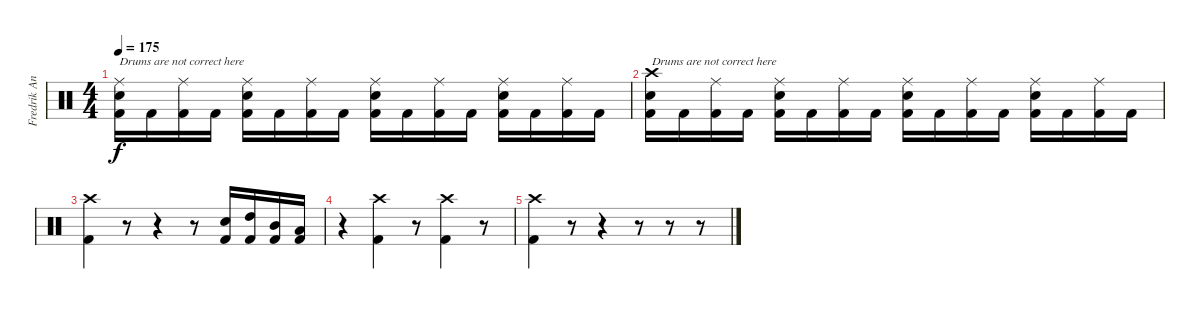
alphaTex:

\track ("Fredrik Andersson" "Fredrik An") {instrument percussion}
\staff {score}
\articulation defaults
\ts (4 4)
\tempo 175
\clef neutral
\ks c
("Ride (middle)" "Electric Snare (hit)" "Kick (hit) 2").16{txt "Drums are not correct here" dy f} "Kick (hit) 2".16 ("Ride (middle)" "Kick (hit) 2").16 "Kick (hit) 2".16 ("Ride (middle)" "Electric Snare (hit)" "Kick (hit) 2").16 "Kick (hit) 2".16 ("Ride (middle)" "Kick (hit) 2").16 "Kick (hit) 2".16 ("Ride (middle)" "Electric Snare (hit)" "Kick (hit) 2").16 "Kick (hit) 2".16 ("Ride (middle)" "Kick (hit) 2").16 "Kick (hit) 2".16 ("Ride (middle)" "Electric Snare (hit)" "Kick (hit) 2").16 "Kick (hit) 2".16 ("Ride (middle)" "Kick (hit) 2").16 "Kick (hit) 2".16 |
("Crash high (hit)" "Electric Snare (hit)" "Kick (hit) 2").16{txt "Drums are not correct here"} "Kick (hit) 2".16 ("Ride (middle)" "Kick (hit) 2").16 "Kick (hit) 2".16 ("Ride (middle)" "Electric Snare (hit)" "Kick (hit) 2").16 "Kick (hit) 2".16 ("Ride (middle)" "Kick (hit) 2").16 "Kick (hit) 2".16 ("Ride (middle)" "Electric Snare (hit)" "Kick (hit) 2").16 "Kick (hit) 2".16 ("Ride (middle)" "Kick (hit) 2").16 "Kick (hit) 2".16 ("Ride (middle)" "Electric Snare (hit)" "Kick (hit) 2").16 "Kick (hit) 2".16 ("Ride (middle)" "Kick (hit) 2").16 "Kick (hit) 2".16 |
("Crash high (hit)" "Kick (hit) 2").4 r.8 r.4 r.8 ("Electric Snare (hit)" "Kick (hit) 2").16 ("High Tom (hit)" "Kick (hit) 2").16 ("Mid Tom (hit)" "Kick (hit) 2").16 ("Low Tom (hit)" "Kick (hit) 2").16 |
r.4 ("Crash high (hit)" "Kick (hit) 2").4 r.8 ("Crash high (hit)" "Kick (hit) 2").4 r.8 |
("Crash high (hit)" "Kick (hit) 2").4 r.8 r.4 r.8 r.8 r.8
